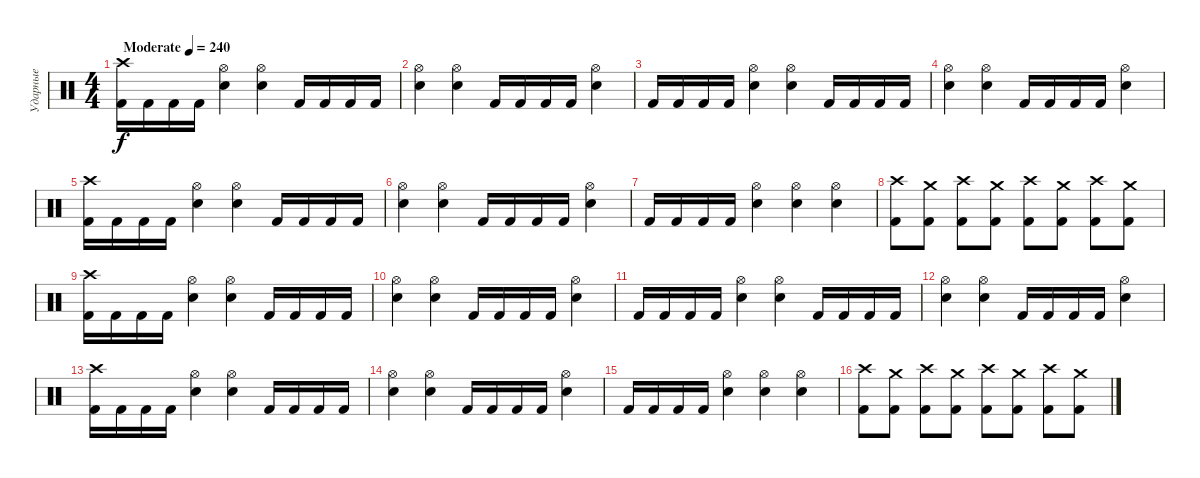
\track ("Ударные" "Ударные") {instrument percussion}
\staff {score}
\articulation defaults
\ts (4 4)
\tempo (240 "Moderate")
\clef neutral
\ks c
("Crash high (hit)" "Kick (hit) 2").16{dy f} "Kick (hit) 2".16 "Kick (hit) 2".16 "Kick (hit) 2".16 ("Hi-Hat (open)" "Electric Snare (hit)").4 ("Hi-Hat (open)" "Electric Snare (hit)").4 "Kick (hit) 2".16 "Kick (hit) 2".16 "Kick (hit) 2".16 "Kick (hit) 2".16 |
("Hi-Hat (open)" "Electric Snare (hit)").4 ("Hi-Hat (open)" "Electric Snare (hit)").4 "Kick (hit) 2".16 "Kick (hit) 2".16 "Kick (hit) 2".16 "Kick (hit) 2".16 ("Hi-Hat (open)" "Electric Snare (hit)").4 |
"Kick (hit) 2".16 "Kick (hit) 2".16 "Kick (hit) 2".16 "Kick (hit) 2".16 ("Hi-Hat (open)" "Electric Snare (hit)").4 ("Hi-Hat (open)" "Electric Snare (hit)").4 "Kick (hit) 2".16 "Kick (hit) 2".16 "Kick (hit) 2".16 "Kick (hit) 2".16 |
("Hi-Hat (open)" "Electric Snare (hit)").4 ("Hi-Hat (open)" "Electric Snare (hit)").4 "Kick (hit) 2".16 "Kick (hit) 2".16 "Kick (hit) 2".16 "Kick (hit) 2".16 ("Hi-Hat (open)" "Electric Snare (hit)").4 |
("Crash high (hit)" "Kick (hit) 2").16 "Kick (hit) 2".16 "Kick (hit) 2".16 "Kick (hit) 2".16 ("Hi-Hat (open)" "Electric Snare (hit)").4 ("Hi-Hat (open)" "Electric Snare (hit)").4 "Kick (hit) 2".16 "Kick (hit) 2".16 "Kick (hit) 2".16 "Kick (hit) 2".16 |
("Hi-Hat (open)" "Electric Snare (hit)").4 ("Hi-Hat (open)" "Electric Snare (hit)").4 "Kick (hit) 2".16 "Kick (hit) 2".16 "Kick (hit) 2".16 "Kick (hit) 2".16 ("Hi-Hat (open)" "Electric Snare (hit)").4 |
"Kick (hit) 2".16 "Kick (hit) 2".16 "Kick (hit) 2".16 "Kick (hit) 2".16 ("Hi-Hat (open)" "Electric Snare (hit)").4 ("Hi-Hat (open)" "Electric Snare (hit)").4 ("Hi-Hat (open)" "Electric Snare (hit)").4 |
("Crash high (hit)" "Kick (hit) 2").8 ("Crash medium (hit)" "Kick (hit) 2").8 ("Crash high (hit)" "Kick (hit) 2").8 ("Crash medium (hit)" "Kick (hit) 2").8 ("Crash high (hit)" "Kick (hit) 2").8 ("Crash medium (hit)" "Kick (hit) 2").8 ("Crash high (hit)" "Kick (hit) 2").8 ("Crash medium (hit)" "Kick (hit) 2").8 |
("Crash high (hit)" "Kick (hit) 2").16 "Kick (hit) 2".16 "Kick (hit) 2".16 "Kick (hit) 2".16 ("Hi-Hat (open)" "Electric Snare (hit)").4 ("Hi-Hat (open)" "Electric Snare (hit)").4 "Kick (hit) 2".16 "Kick (hit) 2".16 "Kick (hit) 2".16 "Kick (hit) 2".16 |
("Hi-Hat (open)" "Electric Snare (hit)").4 ("Hi-Hat (open)" "Electric Snare (hit)").4 "Kick (hit) 2".16 "Kick (hit) 2".16 "Kick (hit) 2".16 "Kick (hit) 2".16 ("Hi-Hat (open)" "Electric Snare (hit)").4 |
"Kick (hit) 2".16 "Kick (hit) 2".16 "Kick (hit) 2".16 "Kick (hit) 2".16 ("Hi-Hat (open)" "Electric Snare (hit)").4 ("Hi-Hat (open)" "Electric Snare (hit)").4 "Kick (hit) 2".16 "Kick (hit) 2".16 "Kick (hit) 2".16 "Kick (hit) 2".16 |
("Hi-Hat (open)" "Electric Snare (hit)").4 ("Hi-Hat (open)" "Electric Snare (hit)").4 "Kick (hit) 2".16 "Kick (hit) 2".16 "Kick (hit) 2".16 "Kick (hit) 2".16 ("Hi-Hat (open)" "Electric Snare (hit)").4 |
("Crash high (hit)" "Kick (hit) 2").16 "Kick (hit) 2".16 "Kick (hit) 2".16 "Kick (hit) 2".16 ("Hi-Hat (open)" "Electric Snare (hit)").4 ("Hi-Hat (open)" "Electric Snare (hit)").4 "Kick (hit) 2".16 "Kick (hit) 2".16 "Kick (hit) 2".16 "Kick (hit) 2".16 |
("Hi-Hat (open)" "Electric Snare (hit)").4 ("Hi-Hat (open)" "Electric Snare (hit)").4 "Kick (hit) 2".16 "Kick (hit) 2".16 "Kick (hit) 2".16 "Kick (hit) 2".16 ("Hi-Hat (open)" "Electric Snare (hit)").4 |
"Kick (hit) 2".16 "Kick (hit) 2".16 "Kick (hit) 2".16 "Kick (hit) 2".16 ("Hi-Hat (open)" "Electric Snare (hit)").4 ("Hi-Hat (open)" "Electric Snare (hit)").4 ("Hi-Hat (open)" "Electric Snare (hit)").4 |
("Crash high (hit)" "Kick (hit) 2").8 ("Crash medium (hit)" "Kick (hit) 2").8 ("Crash high (hit)" "Kick (hit) 2").8 ("Crash medium (hit)" "Kick (hit) 2").8 ("Crash high (hit)" "Kick (hit) 2").8 ("Crash medium (hit)" "Kick (hit) 2").8 ("Crash high (hit)" "Kick (hit) 2").8 ("Crash medium (hit)" "Kick (hit) 2").8
